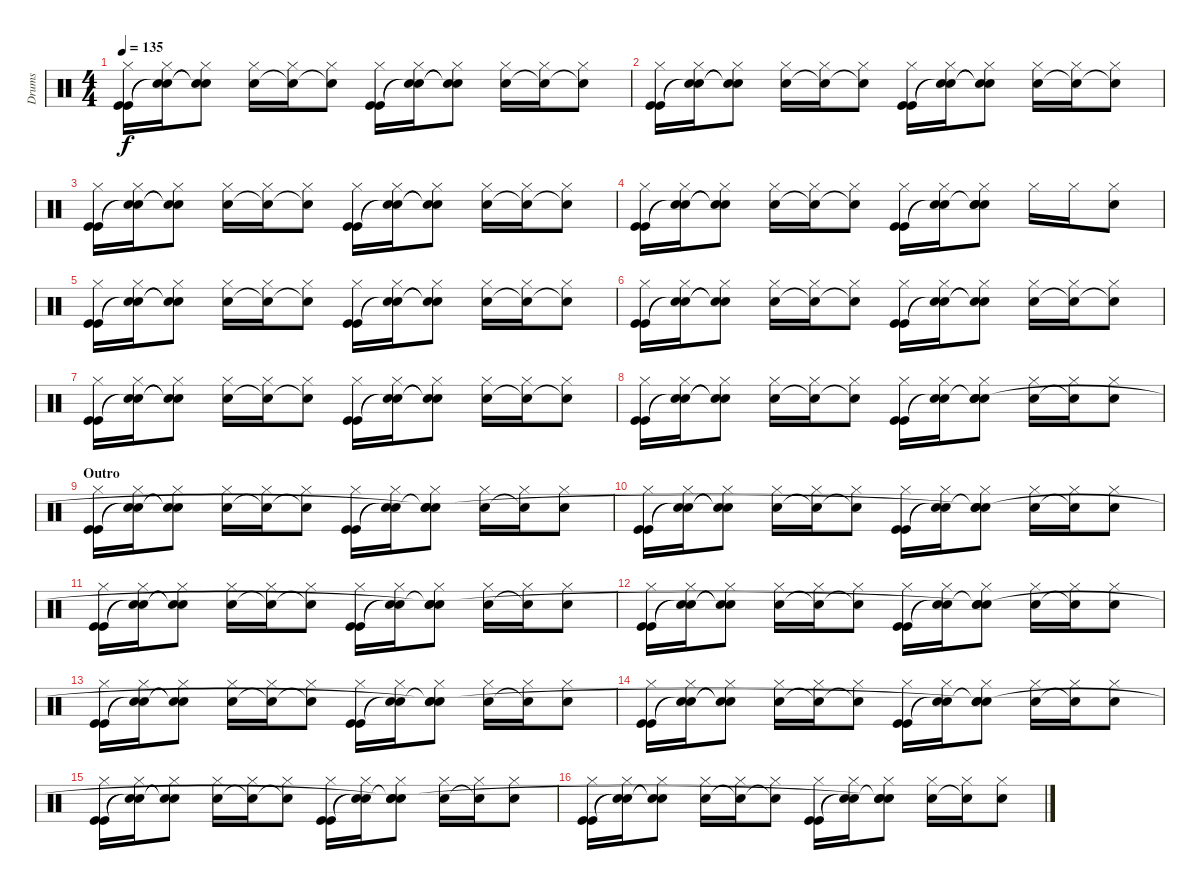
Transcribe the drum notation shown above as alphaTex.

\track ("Drums" "Drums") {instrument percussion}
\staff {score}
\articulation defaults
\ts (4 4)
\tempo 135
\clef neutral
\ks c
("Hi-Hat (closed)" "Kick (hit)" "Kick (hit)").16{dy f} ("Hi-Hat (closed)" "Snare (hit)"{t} "Snare (hit)"{t}).16 ("Hi-Hat (closed)" "Snare (hit)"{t} "Snare (hit)"{t}).8 ("Hi-Hat (closed)" "Snare (hit) 2").16 ("Hi-Hat (closed)" "Snare (hit)"{t}).16 ("Hi-Hat (closed)" "Snare (hit) 2"{t}).8 ("Hi-Hat (closed)" "Kick (hit)" "Kick (hit)").16 ("Hi-Hat (closed)" "Snare (hit)"{t} "Snare (hit)"{t}).16 ("Hi-Hat (closed)" "Snare (hit)"{t} "Snare (hit)"{t}).8 ("Hi-Hat (closed)" "Snare (hit) 2").16 ("Hi-Hat (closed)" "Snare (hit) 2"{t}).16 ("Hi-Hat (closed)" "Snare (hit)"{t}).8 |
("Hi-Hat (closed)" "Kick (hit)" "Kick (hit)").16 ("Hi-Hat (closed)" "Snare (hit)"{t} "Snare (hit)"{t}).16 ("Hi-Hat (closed)" "Snare (hit)"{t} "Snare (hit)"{t}).8 ("Hi-Hat (closed)" "Snare (hit) 2").16 ("Hi-Hat (closed)" "Snare (hit)"{t}).16 ("Hi-Hat (closed)" "Snare (hit) 2"{t}).8 ("Hi-Hat (closed)" "Kick (hit)" "Kick (hit)").16 ("Hi-Hat (closed)" "Snare (hit)"{t} "Snare (hit)"{t}).16 ("Hi-Hat (closed)" "Snare (hit)"{t} "Snare (hit)"{t}).8 ("Hi-Hat (closed)" "Snare (hit) 2").16 ("Hi-Hat (closed)" "Snare (hit) 2"{t}).16 ("Hi-Hat (closed)" "Snare (hit)"{t}).8 |
("Hi-Hat (closed)" "Kick (hit)" "Kick (hit)").16 ("Hi-Hat (closed)" "Snare (hit)"{t} "Snare (hit)"{t}).16 ("Hi-Hat (closed)" "Snare (hit)"{t} "Snare (hit)"{t}).8 ("Hi-Hat (closed)" "Snare (hit) 2").16 ("Hi-Hat (closed)" "Snare (hit)"{t}).16 ("Hi-Hat (closed)" "Snare (hit) 2"{t}).8 ("Hi-Hat (closed)" "Kick (hit)" "Kick (hit)").16 ("Hi-Hat (closed)" "Snare (hit)"{t} "Snare (hit)"{t}).16 ("Hi-Hat (closed)" "Snare (hit)"{t} "Snare (hit)"{t}).8 ("Hi-Hat (closed)" "Snare (hit) 2").16 ("Hi-Hat (closed)" "Snare (hit) 2"{t}).16 ("Hi-Hat (closed)" "Snare (hit)"{t}).8 |
("Hi-Hat (closed)" "Kick (hit)" "Kick (hit)").16 ("Hi-Hat (closed)" "Snare (hit)"{t} "Snare (hit)"{t}).16 ("Hi-Hat (closed)" "Snare (hit)"{t} "Snare (hit)"{t}).8 ("Hi-Hat (closed)" "Snare (hit) 2").16 ("Hi-Hat (closed)" "Snare (hit)"{t}).16 ("Hi-Hat (closed)" "Snare (hit) 2"{t}).8 ("Hi-Hat (closed)" "Kick (hit)" "Kick (hit)").16 ("Hi-Hat (closed)" "Snare (hit)"{t} "Snare (hit)"{t}).16 ("Hi-Hat (closed)" "Snare (hit) 2" "Snare (hit)"{t} "Snare (hit)").8 "Hi-Hat (closed)".16 "Hi-Hat (closed)".16 ("Hi-Hat (closed)" "Snare (hit) 2").8 |
("Hi-Hat (closed)" "Kick (hit)" "Kick (hit)").16 ("Hi-Hat (closed)" "Snare (hit)"{t} "Snare (hit)"{t}).16 ("Hi-Hat (closed)" "Snare (hit)"{t} "Snare (hit)"{t}).8 ("Hi-Hat (closed)" "Snare (hit) 2").16 ("Hi-Hat (closed)" "Snare (hit)"{t}).16 ("Hi-Hat (closed)" "Snare (hit) 2"{t}).8 ("Hi-Hat (closed)" "Kick (hit)" "Kick (hit)").16 ("Hi-Hat (closed)" "Snare (hit)"{t} "Snare (hit)"{t}).16 ("Hi-Hat (closed)" "Snare (hit)"{t} "Snare (hit)"{t}).8 ("Hi-Hat (closed)" "Snare (hit) 2").16 ("Hi-Hat (closed)" "Snare (hit) 2"{t}).16 ("Hi-Hat (closed)" "Snare (hit)"{t}).8 |
("Hi-Hat (closed)" "Kick (hit)" "Kick (hit)").16 ("Hi-Hat (closed)" "Snare (hit)"{t} "Snare (hit)"{t}).16 ("Hi-Hat (closed)" "Snare (hit)"{t} "Snare (hit)"{t}).8 ("Hi-Hat (closed)" "Snare (hit) 2").16 ("Hi-Hat (closed)" "Snare (hit)"{t}).16 ("Hi-Hat (closed)" "Snare (hit) 2"{t}).8 ("Hi-Hat (closed)" "Kick (hit)" "Kick (hit)").16 ("Hi-Hat (closed)" "Snare (hit)"{t} "Snare (hit)"{t}).16 ("Hi-Hat (closed)" "Snare (hit)"{t} "Snare (hit)"{t}).8 ("Hi-Hat (closed)" "Snare (hit) 2").16 ("Hi-Hat (closed)" "Snare (hit) 2"{t}).16 ("Hi-Hat (closed)" "Snare (hit)"{t}).8 |
("Hi-Hat (closed)" "Kick (hit)" "Kick (hit)").16 ("Hi-Hat (closed)" "Snare (hit)"{t} "Snare (hit)"{t}).16 ("Hi-Hat (closed)" "Snare (hit)"{t} "Snare (hit)"{t}).8 ("Hi-Hat (closed)" "Snare (hit) 2").16 ("Hi-Hat (closed)" "Snare (hit)"{t}).16 ("Hi-Hat (closed)" "Snare (hit) 2"{t}).8 ("Hi-Hat (closed)" "Kick (hit)" "Kick (hit)").16 ("Hi-Hat (closed)" "Snare (hit)"{t} "Snare (hit)"{t}).16 ("Hi-Hat (closed)" "Snare (hit)"{t} "Snare (hit)"{t}).8 ("Hi-Hat (closed)" "Snare (hit) 2").16 ("Hi-Hat (closed)" "Snare (hit) 2"{t}).16 ("Hi-Hat (closed)" "Snare (hit)"{t}).8 |
("Hi-Hat (closed)" "Kick (hit)" "Kick (hit)").16 ("Hi-Hat (closed)" "Snare (hit)"{t} "Snare (hit)"{t}).16 ("Hi-Hat (closed)" "Snare (hit)"{t} "Snare (hit)"{t}).8 ("Hi-Hat (closed)" "Snare (hit) 2").16 ("Hi-Hat (closed)" "Snare (hit)"{t}).16 ("Hi-Hat (closed)" "Snare (hit) 2"{t}).8 ("Hi-Hat (closed)" "Kick (hit)" "Kick (hit)").16 ("Hi-Hat (closed)" "Snare (hit)"{t} "Snare (hit)"{t}).16 ("Hi-Hat (closed)" "Snare (hit) 2" "Snare (hit)"{t} "Snare (hit)").8 ("Hi-Hat (closed)" "Snare (hit) 2").16 ("Hi-Hat (closed)" "Snare (hit) 2"{t}).16 ("Hi-Hat (closed)" "Snare (hit) 2").8 |
\section ("" "Outro")
("Hi-Hat (closed)" "Kick (hit)" "Kick (hit)").16 ("Hi-Hat (closed)" "Snare (hit)"{t} "Snare (hit)"{t}).16 ("Hi-Hat (closed)" "Snare (hit)"{t} "Snare (hit)"{t}).8 ("Hi-Hat (closed)" "Snare (hit) 2").16 ("Hi-Hat (closed)" "Snare (hit)"{t}).16 ("Hi-Hat (closed)" "Snare (hit) 2"{t}).8 ("Hi-Hat (closed)" "Kick (hit)" "Kick (hit)").16 ("Hi-Hat (closed)" "Snare (hit)"{t} "Snare (hit)"{t}).16 ("Hi-Hat (closed)" "Snare (hit) 2" "Snare (hit)"{t} "Snare (hit)"{t}).8 ("Hi-Hat (closed)" "Snare (hit) 2").16 ("Hi-Hat (closed)" "Snare (hit) 2"{t}).16 ("Hi-Hat (closed)" "Snare (hit) 2").8 |
("Hi-Hat (closed)" "Kick (hit)" "Kick (hit)").16 ("Hi-Hat (closed)" "Snare (hit)"{t} "Snare (hit)"{t}).16 ("Hi-Hat (closed)" "Snare (hit)"{t} "Snare (hit)"{t}).8 ("Hi-Hat (closed)" "Snare (hit) 2").16 ("Hi-Hat (closed)" "Snare (hit)"{t}).16 ("Hi-Hat (closed)" "Snare (hit) 2"{t}).8 ("Hi-Hat (closed)" "Kick (hit)" "Kick (hit)").16 ("Hi-Hat (closed)" "Snare (hit)"{t} "Snare (hit)"{t}).16 ("Hi-Hat (closed)" "Snare (hit) 2" "Snare (hit)"{t} "Snare (hit)"{t}).8 ("Hi-Hat (closed)" "Snare (hit) 2").16 ("Hi-Hat (closed)" "Snare (hit) 2"{t}).16 ("Hi-Hat (closed)" "Snare (hit) 2").8 |
("Hi-Hat (closed)" "Kick (hit)" "Kick (hit)").16 ("Hi-Hat (closed)" "Snare (hit)"{t} "Snare (hit)"{t}).16 ("Hi-Hat (closed)" "Snare (hit)"{t} "Snare (hit)"{t}).8 ("Hi-Hat (closed)" "Snare (hit) 2").16 ("Hi-Hat (closed)" "Snare (hit)"{t}).16 ("Hi-Hat (closed)" "Snare (hit) 2"{t}).8 ("Hi-Hat (closed)" "Kick (hit)" "Kick (hit)").16 ("Hi-Hat (closed)" "Snare (hit)"{t} "Snare (hit)"{t}).16 ("Hi-Hat (closed)" "Snare (hit) 2" "Snare (hit)"{t} "Snare (hit)"{t}).8 ("Hi-Hat (closed)" "Snare (hit) 2").16 ("Hi-Hat (closed)" "Snare (hit) 2"{t}).16 ("Hi-Hat (closed)" "Snare (hit) 2").8 |
("Hi-Hat (closed)" "Kick (hit)" "Kick (hit)").16 ("Hi-Hat (closed)" "Snare (hit)"{t} "Snare (hit)"{t}).16 ("Hi-Hat (closed)" "Snare (hit)"{t} "Snare (hit)"{t}).8 ("Hi-Hat (closed)" "Snare (hit) 2").16 ("Hi-Hat (closed)" "Snare (hit)"{t}).16 ("Hi-Hat (closed)" "Snare (hit) 2"{t}).8 ("Hi-Hat (closed)" "Kick (hit)" "Kick (hit)").16 ("Hi-Hat (closed)" "Snare (hit)"{t} "Snare (hit)"{t}).16 ("Hi-Hat (closed)" "Snare (hit) 2" "Snare (hit)"{t} "Snare (hit)"{t}).8 ("Hi-Hat (closed)" "Snare (hit) 2").16 ("Hi-Hat (closed)" "Snare (hit) 2"{t}).16 ("Hi-Hat (closed)" "Snare (hit) 2").8 |
("Hi-Hat (closed)" "Kick (hit)" "Kick (hit)").16 ("Hi-Hat (closed)" "Snare (hit)"{t} "Snare (hit)"{t}).16 ("Hi-Hat (closed)" "Snare (hit)"{t} "Snare (hit)"{t}).8 ("Hi-Hat (closed)" "Snare (hit) 2").16 ("Hi-Hat (closed)" "Snare (hit)"{t}).16 ("Hi-Hat (closed)" "Snare (hit) 2"{t}).8 ("Hi-Hat (closed)" "Kick (hit)" "Kick (hit)").16 ("Hi-Hat (closed)" "Snare (hit)"{t} "Snare (hit)"{t}).16 ("Hi-Hat (closed)" "Snare (hit) 2" "Snare (hit)"{t} "Snare (hit)"{t}).8 ("Hi-Hat (closed)" "Snare (hit) 2").16 ("Hi-Hat (closed)" "Snare (hit) 2"{t}).16 ("Hi-Hat (closed)" "Snare (hit) 2").8 |
("Hi-Hat (closed)" "Kick (hit)" "Kick (hit)").16 ("Hi-Hat (closed)" "Snare (hit)"{t} "Snare (hit)"{t}).16 ("Hi-Hat (closed)" "Snare (hit)"{t} "Snare (hit)"{t}).8 ("Hi-Hat (closed)" "Snare (hit) 2").16 ("Hi-Hat (closed)" "Snare (hit)"{t}).16 ("Hi-Hat (closed)" "Snare (hit) 2"{t}).8 ("Hi-Hat (closed)" "Kick (hit)" "Kick (hit)").16 ("Hi-Hat (closed)" "Snare (hit)"{t} "Snare (hit)"{t}).16 ("Hi-Hat (closed)" "Snare (hit) 2" "Snare (hit)"{t} "Snare (hit)"{t}).8 ("Hi-Hat (closed)" "Snare (hit) 2").16 ("Hi-Hat (closed)" "Snare (hit) 2"{t}).16 ("Hi-Hat (closed)" "Snare (hit) 2").8 |
("Hi-Hat (closed)" "Kick (hit)" "Kick (hit)").16 ("Hi-Hat (closed)" "Snare (hit)"{t} "Snare (hit)"{t}).16 ("Hi-Hat (closed)" "Snare (hit)"{t} "Snare (hit)"{t}).8 ("Hi-Hat (closed)" "Snare (hit) 2").16 ("Hi-Hat (closed)" "Snare (hit)"{t}).16 ("Hi-Hat (closed)" "Snare (hit) 2"{t}).8 ("Hi-Hat (closed)" "Kick (hit)" "Kick (hit)").16 ("Hi-Hat (closed)" "Snare (hit)"{t} "Snare (hit)"{t}).16 ("Hi-Hat (closed)" "Snare (hit) 2" "Snare (hit)"{t} "Snare (hit)"{t}).8 ("Hi-Hat (closed)" "Snare (hit) 2").16 ("Hi-Hat (closed)" "Snare (hit) 2"{t}).16 ("Hi-Hat (closed)" "Snare (hit) 2").8 |
("Hi-Hat (closed)" "Kick (hit)" "Kick (hit)").16 ("Hi-Hat (closed)" "Snare (hit)"{t} "Snare (hit)"{t}).16 ("Hi-Hat (closed)" "Snare (hit)"{t} "Snare (hit)"{t}).8 ("Hi-Hat (closed)" "Snare (hit) 2").16 ("Hi-Hat (closed)" "Snare (hit)"{t}).16 ("Hi-Hat (closed)" "Snare (hit) 2"{t}).8 ("Hi-Hat (closed)" "Kick (hit)" "Kick (hit)").16 ("Hi-Hat (closed)" "Snare (hit)"{t} "Snare (hit)"{t}).16 ("Hi-Hat (closed)" "Snare (hit) 2" "Snare (hit)"{t} "Snare (hit)"{t}).8 ("Hi-Hat (closed)" "Snare (hit) 2").16 ("Hi-Hat (closed)" "Snare (hit) 2"{t}).16 ("Hi-Hat (closed)" "Snare (hit) 2").8
